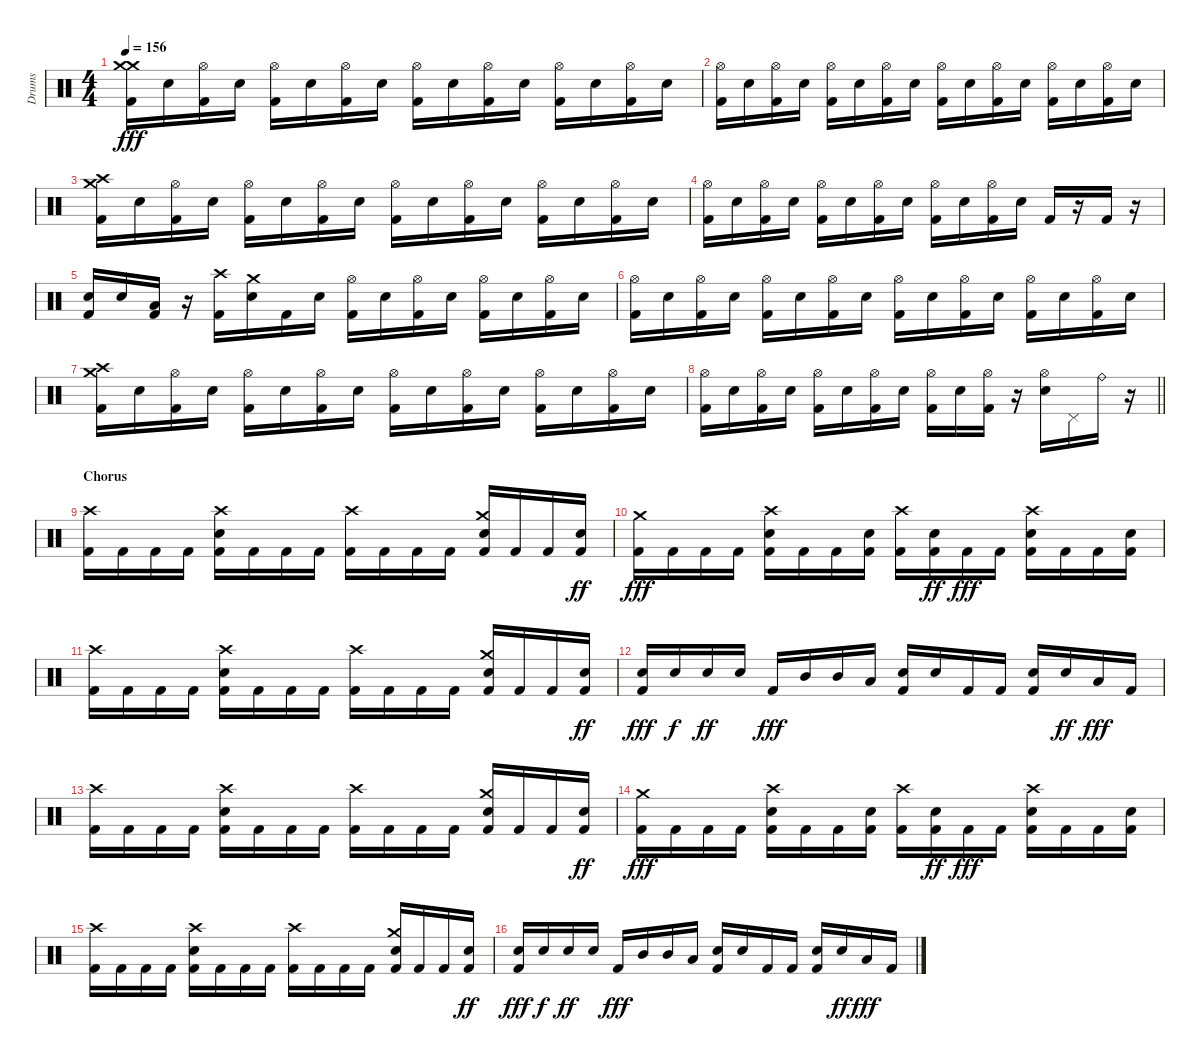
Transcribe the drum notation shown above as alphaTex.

\track ("Drums" "Drums") {instrument percussion}
\staff {score}
\articulation defaults
\ts (4 4)
\tempo 156
\clef neutral
\ks c
("Kick (hit) 2" "Crash medium (hit)" "Crash medium (hit)").16{dy fff} "Snare (hit) 2".16 ("Kick (hit) 2" "Hi-Hat (open)").16 "Snare (hit) 2".16 ("Kick (hit) 2" "Hi-Hat (open)").16 "Snare (hit) 2".16 ("Kick (hit) 2" "Hi-Hat (open)").16 "Snare (hit) 2".16 ("Kick (hit) 2" "Hi-Hat (open)").16 "Snare (hit) 2".16 ("Kick (hit) 2" "Hi-Hat (open)").16 "Snare (hit) 2".16 ("Kick (hit) 2" "Hi-Hat (open)").16 "Snare (hit) 2".16 ("Kick (hit) 2" "Hi-Hat (open)").16 "Snare (hit) 2".16 |
("Kick (hit) 2" "Hi-Hat (open)").16 "Snare (hit) 2".16 ("Kick (hit) 2" "Hi-Hat (open)").16 "Snare (hit) 2".16 ("Kick (hit) 2" "Hi-Hat (open)").16 "Snare (hit) 2".16 ("Kick (hit) 2" "Hi-Hat (open)").16 "Snare (hit) 2".16 ("Kick (hit) 2" "Hi-Hat (open)").16 "Snare (hit) 2".16 ("Kick (hit) 2" "Hi-Hat (open)").16 "Snare (hit) 2".16 ("Kick (hit) 2" "Hi-Hat (open)").16 "Snare (hit) 2".16 ("Kick (hit) 2" "Hi-Hat (open)").16 "Snare (hit) 2".16 |
("Kick (hit) 2" "Crash high (hit)" "Crash medium (hit)").16 "Snare (hit) 2".16 ("Kick (hit) 2" "Hi-Hat (open)").16 "Snare (hit) 2".16 ("Kick (hit) 2" "Hi-Hat (open)").16 "Snare (hit) 2".16 ("Kick (hit) 2" "Hi-Hat (open)").16 "Snare (hit) 2".16 ("Kick (hit) 2" "Hi-Hat (open)").16 "Snare (hit) 2".16 ("Kick (hit) 2" "Hi-Hat (open)").16 "Snare (hit) 2".16 ("Kick (hit) 2" "Hi-Hat (open)").16 "Snare (hit) 2".16 ("Kick (hit) 2" "Hi-Hat (open)").16 "Snare (hit) 2".16 |
("Kick (hit) 2" "Hi-Hat (open)").16 "Snare (hit) 2".16 ("Kick (hit) 2" "Hi-Hat (open)").16 "Snare (hit) 2".16 ("Kick (hit) 2" "Hi-Hat (open)").16 "Snare (hit) 2".16 ("Kick (hit) 2" "Hi-Hat (open)").16 "Snare (hit) 2".16 ("Kick (hit) 2" "Hi-Hat (open)").16 "Snare (hit) 2".16 ("Kick (hit) 2" "Hi-Hat (open)").16 "Snare (hit) 2".16 "Kick (hit) 2".16 r.16 "Kick (hit) 2".16 r.16 |
("Kick (hit) 2" "Snare (hit) 2").16 "Snare (hit) 2".16 ("Kick (hit) 2" "Low Tom (hit)").16 r.16 ("Kick (hit) 2" "Crash high (hit)").16 ("Snare (hit) 2" "Crash medium (hit)").16 "Kick (hit) 2".16 "Snare (hit) 2".16 ("Kick (hit) 2" "Hi-Hat (open)").16 "Snare (hit) 2".16 ("Kick (hit) 2" "Hi-Hat (open)").16 "Snare (hit) 2".16 ("Kick (hit) 2" "Hi-Hat (open)").16 "Snare (hit) 2".16 ("Kick (hit) 2" "Hi-Hat (open)").16 "Snare (hit) 2".16 |
("Kick (hit) 2" "Hi-Hat (open)").16 "Snare (hit) 2".16 ("Kick (hit) 2" "Hi-Hat (open)").16 "Snare (hit) 2".16 ("Kick (hit) 2" "Hi-Hat (open)").16 "Snare (hit) 2".16 ("Kick (hit) 2" "Hi-Hat (open)").16 "Snare (hit) 2".16 ("Kick (hit) 2" "Hi-Hat (open)").16 "Snare (hit) 2".16 ("Kick (hit) 2" "Hi-Hat (open)").16 "Snare (hit) 2".16 ("Kick (hit) 2" "Hi-Hat (open)").16 "Snare (hit) 2".16 ("Kick (hit) 2" "Hi-Hat (open)").16 "Snare (hit) 2".16 |
("Kick (hit) 2" "Crash high (hit)" "Crash medium (hit)").16 "Snare (hit) 2".16 ("Kick (hit) 2" "Hi-Hat (open)").16 "Snare (hit) 2".16 ("Kick (hit) 2" "Hi-Hat (open)").16 "Snare (hit) 2".16 ("Kick (hit) 2" "Hi-Hat (open)").16 "Snare (hit) 2".16 ("Kick (hit) 2" "Hi-Hat (open)").16 "Snare (hit) 2".16 ("Kick (hit) 2" "Hi-Hat (open)").16 "Snare (hit) 2".16 ("Kick (hit) 2" "Hi-Hat (open)").16 "Snare (hit) 2".16 ("Kick (hit) 2" "Hi-Hat (open)").16 "Snare (hit) 2".16 |
\barLineRight lightlight
("Kick (hit) 2" "Hi-Hat (open)").16 "Snare (hit) 2".16 ("Kick (hit) 2" "Hi-Hat (open)").16 "Snare (hit) 2".16 ("Kick (hit) 2" "Hi-Hat (open)").16 "Snare (hit) 2".16 ("Kick (hit) 2" "Hi-Hat (open)").16 "Snare (hit) 2".16 ("Kick (hit) 2" "Hi-Hat (open)").16 "Snare (hit) 2".16 ("Kick (hit) 2" "Hi-Hat (open)").16 r.16 ("Snare (hit) 2" "Hi-Hat (open)").16 "Pedal Hi-Hat (hit)".16 "Ride (bell)".16 r.16 |
\section ("" "Chorus")
("Kick (hit) 2" "Crash high (hit)").16 "Kick (hit) 2".16 "Kick (hit) 2".16 "Kick (hit) 2".16 ("Kick (hit) 2" "Snare (hit) 2" "Crash high (hit)").16 "Kick (hit) 2".16 "Kick (hit) 2".16 "Kick (hit) 2".16 ("Kick (hit) 2" "Crash high (hit)").16 "Kick (hit) 2".16 "Kick (hit) 2".16 "Kick (hit) 2".16 ("Kick (hit) 2" "Snare (hit) 2" "Crash medium (hit)").16 "Kick (hit) 2".16 "Kick (hit) 2".16 ("Kick (hit) 2" "Snare (hit) 2").16{dy ff} |
("Kick (hit) 2" "Crash medium (hit)").16{dy fff} "Kick (hit) 2".16 "Kick (hit) 2".16 "Kick (hit) 2".16 ("Kick (hit) 2" "Snare (hit) 2" "Crash high (hit)").16 "Kick (hit) 2".16 "Kick (hit) 2".16 ("Kick (hit) 2" "Snare (hit) 2").16 ("Kick (hit) 2" "Crash high (hit)").16 ("Kick (hit) 2" "Snare (hit) 2").16{dy ff} "Kick (hit) 2".16{dy fff} "Kick (hit) 2".16 ("Kick (hit) 2" "Snare (hit) 2" "Crash high (hit)").16 "Kick (hit) 2".16 "Kick (hit) 2".16 ("Kick (hit) 2" "Snare (hit) 2").16 |
("Kick (hit) 2" "Crash high (hit)").16 "Kick (hit) 2".16 "Kick (hit) 2".16 "Kick (hit) 2".16 ("Kick (hit) 2" "Snare (hit) 2" "Crash high (hit)").16 "Kick (hit) 2".16 "Kick (hit) 2".16 "Kick (hit) 2".16 ("Kick (hit) 2" "Crash high (hit)").16 "Kick (hit) 2".16 "Kick (hit) 2".16 "Kick (hit) 2".16 ("Kick (hit) 2" "Snare (hit) 2" "Crash medium (hit)").16 "Kick (hit) 2".16 "Kick (hit) 2".16 ("Kick (hit) 2" "Snare (hit) 2").16{dy ff} |
("Kick (hit) 2" "Snare (hit) 2").16{dy fff} "Snare (hit) 2".16{dy f} "Snare (hit) 2".16{dy ff} "Snare (hit) 2".16 "Kick (hit) 2".16{dy fff} "Mid Tom (hit)".16 "Mid Tom (hit)".16 "Low Tom (hit)".16 ("Kick (hit) 2" "Snare (hit) 2").16 "Snare (hit) 2".16 "Kick (hit) 2".16 "Kick (hit) 2".16 ("Kick (hit) 2" "Snare (hit) 2").16 "Snare (hit) 2".16{dy ff} "Low Tom (hit)".16{dy fff} "Kick (hit) 2".16 |
("Kick (hit) 2" "Crash high (hit)").16 "Kick (hit) 2".16 "Kick (hit) 2".16 "Kick (hit) 2".16 ("Kick (hit) 2" "Snare (hit) 2" "Crash high (hit)").16 "Kick (hit) 2".16 "Kick (hit) 2".16 "Kick (hit) 2".16 ("Kick (hit) 2" "Crash high (hit)").16 "Kick (hit) 2".16 "Kick (hit) 2".16 "Kick (hit) 2".16 ("Kick (hit) 2" "Snare (hit) 2" "Crash medium (hit)").16 "Kick (hit) 2".16 "Kick (hit) 2".16 ("Kick (hit) 2" "Snare (hit) 2").16{dy ff} |
("Kick (hit) 2" "Crash medium (hit)").16{dy fff} "Kick (hit) 2".16 "Kick (hit) 2".16 "Kick (hit) 2".16 ("Kick (hit) 2" "Snare (hit) 2" "Crash high (hit)").16 "Kick (hit) 2".16 "Kick (hit) 2".16 ("Kick (hit) 2" "Snare (hit) 2").16 ("Kick (hit) 2" "Crash high (hit)").16 ("Kick (hit) 2" "Snare (hit) 2").16{dy ff} "Kick (hit) 2".16{dy fff} "Kick (hit) 2".16 ("Kick (hit) 2" "Snare (hit) 2" "Crash high (hit)").16 "Kick (hit) 2".16 "Kick (hit) 2".16 ("Kick (hit) 2" "Snare (hit) 2").16 |
("Kick (hit) 2" "Crash high (hit)").16 "Kick (hit) 2".16 "Kick (hit) 2".16 "Kick (hit) 2".16 ("Kick (hit) 2" "Snare (hit) 2" "Crash high (hit)").16 "Kick (hit) 2".16 "Kick (hit) 2".16 "Kick (hit) 2".16 ("Kick (hit) 2" "Crash high (hit)").16 "Kick (hit) 2".16 "Kick (hit) 2".16 "Kick (hit) 2".16 ("Kick (hit) 2" "Snare (hit) 2" "Crash medium (hit)").16 "Kick (hit) 2".16 "Kick (hit) 2".16 ("Kick (hit) 2" "Snare (hit) 2").16{dy ff} |
("Kick (hit) 2" "Snare (hit) 2").16{dy fff} "Snare (hit) 2".16{dy f} "Snare (hit) 2".16{dy ff} "Snare (hit) 2".16 "Kick (hit) 2".16{dy fff} "Mid Tom (hit)".16 "Mid Tom (hit)".16 "Low Tom (hit)".16 ("Kick (hit) 2" "Snare (hit) 2").16 "Snare (hit) 2".16 "Kick (hit) 2".16 "Kick (hit) 2".16 ("Kick (hit) 2" "Snare (hit) 2").16 "Snare (hit) 2".16{dy ff} "Low Tom (hit)".16{dy fff} "Kick (hit) 2".16
